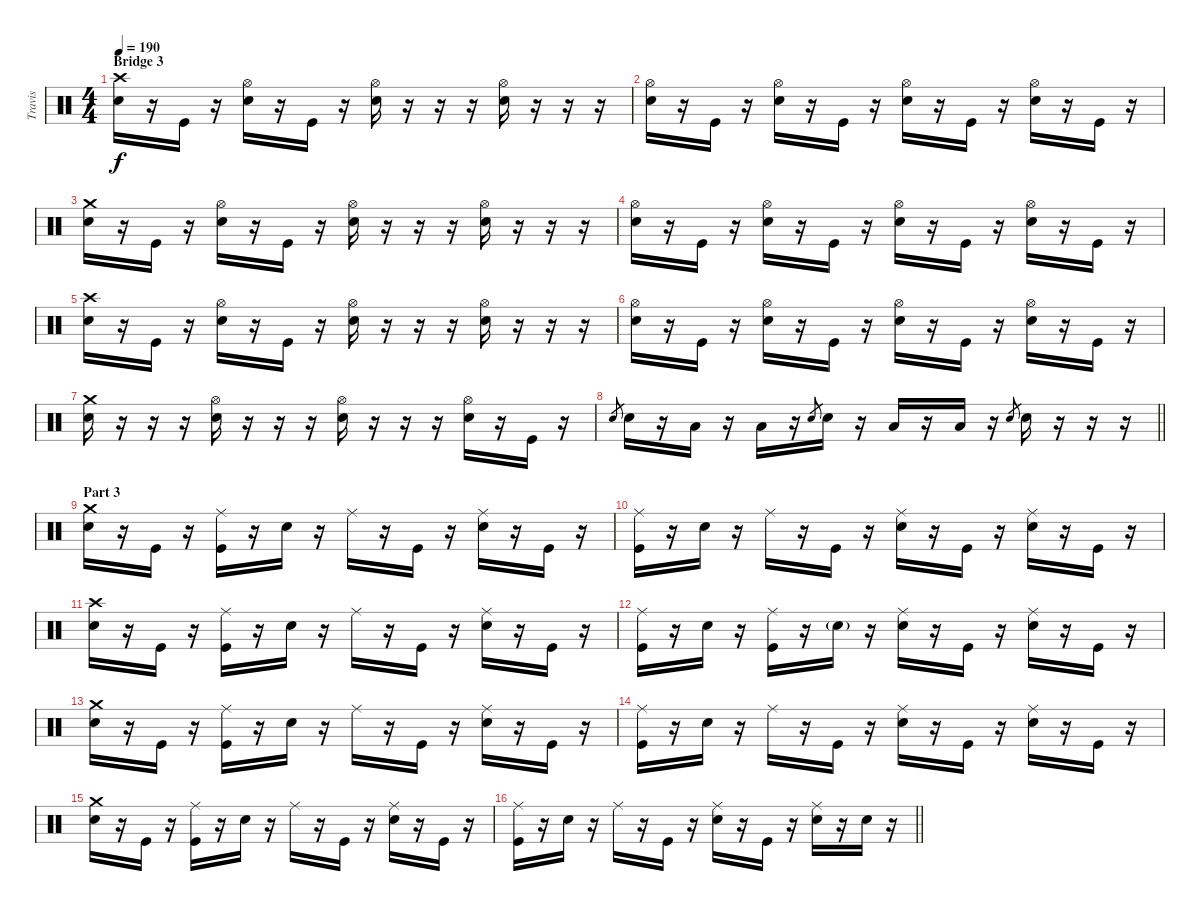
\track ("Travis" "Travis") {instrument percussion}
\staff {score}
\articulation defaults
\ts (4 4)
\section ("" "Bridge 3")
\tempo 190
\clef neutral
\ks c
("Crash high (hit)" "Snare (hit) 2").16{dy f} r.16 "Kick (hit)".16 r.16 ("Hi-Hat (open)" "Snare (hit) 2").16 r.16 "Kick (hit)".16 r.16 ("Hi-Hat (open)" "Snare (hit) 2").16 r.16 r.16 r.16 ("Hi-Hat (open)" "Snare (hit) 2").16 r.16 r.16 r.16 |
("Hi-Hat (open)" "Snare (hit) 2").16 r.16 "Kick (hit)".16 r.16 ("Hi-Hat (open)" "Snare (hit) 2").16 r.16 "Kick (hit)".16 r.16 ("Hi-Hat (open)" "Snare (hit) 2").16 r.16 "Kick (hit)".16 r.16 ("Hi-Hat (open)" "Snare (hit) 2").16 r.16 "Kick (hit)".16 r.16 |
("Crash medium (hit)" "Snare (hit) 2").16 r.16 "Kick (hit)".16 r.16 ("Hi-Hat (open)" "Snare (hit) 2").16 r.16 "Kick (hit)".16 r.16 ("Hi-Hat (open)" "Snare (hit) 2").16 r.16 r.16 r.16 ("Hi-Hat (open)" "Snare (hit) 2").16 r.16 r.16 r.16 |
("Hi-Hat (open)" "Snare (hit) 2").16 r.16 "Kick (hit)".16 r.16 ("Hi-Hat (open)" "Snare (hit) 2").16 r.16 "Kick (hit)".16 r.16 ("Hi-Hat (open)" "Snare (hit) 2").16 r.16 "Kick (hit)".16 r.16 ("Hi-Hat (open)" "Snare (hit) 2").16 r.16 "Kick (hit)".16 r.16 |
("Crash high (hit)" "Snare (hit) 2").16 r.16 "Kick (hit)".16 r.16 ("Hi-Hat (open)" "Snare (hit) 2").16 r.16 "Kick (hit)".16 r.16 ("Hi-Hat (open)" "Snare (hit) 2").16 r.16 r.16 r.16 ("Hi-Hat (open)" "Snare (hit) 2").16 r.16 r.16 r.16 |
("Hi-Hat (open)" "Snare (hit) 2").16 r.16 "Kick (hit)".16 r.16 ("Hi-Hat (open)" "Snare (hit) 2").16 r.16 "Kick (hit)".16 r.16 ("Hi-Hat (open)" "Snare (hit) 2").16 r.16 "Kick (hit)".16 r.16 ("Hi-Hat (open)" "Snare (hit) 2").16 r.16 "Kick (hit)".16 r.16 |
("Crash medium (hit)" "Snare (hit) 2").16 r.16 r.16 r.16 ("Hi-Hat (open)" "Snare (hit) 2").16 r.16 r.16 r.16 ("Hi-Hat (open)" "Snare (hit) 2").16 r.16 r.16 r.16 ("Hi-Hat (open)" "Snare (hit) 2").16 r.16 "Kick (hit)".16 r.16 |
\barLineRight lightlight "Snare (hit)".8{gr} "Snare (hit) 2".16
r.16 "Low Tom (hit)".16 r.16 "Low Floor Tom (hit)".16 r.16 "Snare (hit)".8{gr} "Snare (hit) 2".16 r.16 "Low Tom (hit)".16 r.16 "Low Floor Tom (hit)".16 r.16 "Snare (hit)".8{gr} "Snare (hit) 2".16 r.16 r.16 r.16 |
\section ("" "Part 3")
("Crash medium (hit)" "Snare (hit) 2").16 r.16 "Kick (hit)".16 r.16 ("Ride (middle)" "Kick (hit)").16 r.16 "Snare (hit) 2".16 r.16 "Ride (middle)".16 r.16 "Kick (hit)".16 r.16 ("Ride (middle)" "Snare (hit) 2").16 r.16 "Kick (hit)".16 r.16 |
("Ride (middle)" "Kick (hit)").16 r.16 "Snare (hit) 2".16 r.16 "Ride (middle)".16 r.16 "Kick (hit)".16 r.16 ("Ride (middle)" "Snare (hit) 2").16 r.16 "Kick (hit)".16 r.16 ("Ride (middle)" "Snare (hit) 2").16 r.16 "Kick (hit)".16 r.16 |
("Crash high (hit)" "Snare (hit) 2").16 r.16 "Kick (hit)".16 r.16 ("Ride (middle)" "Kick (hit)").16 r.16 "Snare (hit) 2".16 r.16 "Ride (middle)".16 r.16 "Kick (hit)".16 r.16 ("Ride (middle)" "Snare (hit) 2").16 r.16 "Kick (hit)".16 r.16 |
("Ride (middle)" "Kick (hit)").16 r.16 "Snare (hit) 2".16 r.16 ("Ride (middle)" "Kick (hit)").16 r.16 "Snare (hit) 2"{g}.16 r.16 ("Ride (middle)" "Snare (hit) 2").16 r.16 "Kick (hit)".16 r.16 ("Ride (middle)" "Snare (hit) 2").16 r.16 "Kick (hit)".16 r.16 |
("Crash medium (hit)" "Snare (hit) 2").16 r.16 "Kick (hit)".16 r.16 ("Ride (middle)" "Kick (hit)").16 r.16 "Snare (hit) 2".16 r.16 "Ride (middle)".16 r.16 "Kick (hit)".16 r.16 ("Ride (middle)" "Snare (hit) 2").16 r.16 "Kick (hit)".16 r.16 |
("Ride (middle)" "Kick (hit)").16 r.16 "Snare (hit) 2".16 r.16 "Ride (middle)".16 r.16 "Kick (hit)".16 r.16 ("Ride (middle)" "Snare (hit) 2").16 r.16 "Kick (hit)".16 r.16 ("Ride (middle)" "Snare (hit) 2").16 r.16 "Kick (hit)".16 r.16 |
("Crash medium (hit)" "Snare (hit) 2").16 r.16 "Kick (hit)".16 r.16 ("Ride (middle)" "Kick (hit)").16 r.16 "Snare (hit) 2".16 r.16 "Ride (middle)".16 r.16 "Kick (hit)".16 r.16 ("Ride (middle)" "Snare (hit) 2").16 r.16 "Kick (hit)".16 r.16 |
\barLineRight lightlight
("Ride (middle)" "Kick (hit)").16 r.16 "Snare (hit) 2".16 r.16 "Ride (middle)".16 r.16 "Kick (hit)".16 r.16 ("Ride (middle)" "Snare (hit) 2").16 r.16 "Kick (hit)".16 r.16 ("Ride (middle)" "Snare (hit) 2").16 r.16 "Snare (hit) 2".16 r.16
